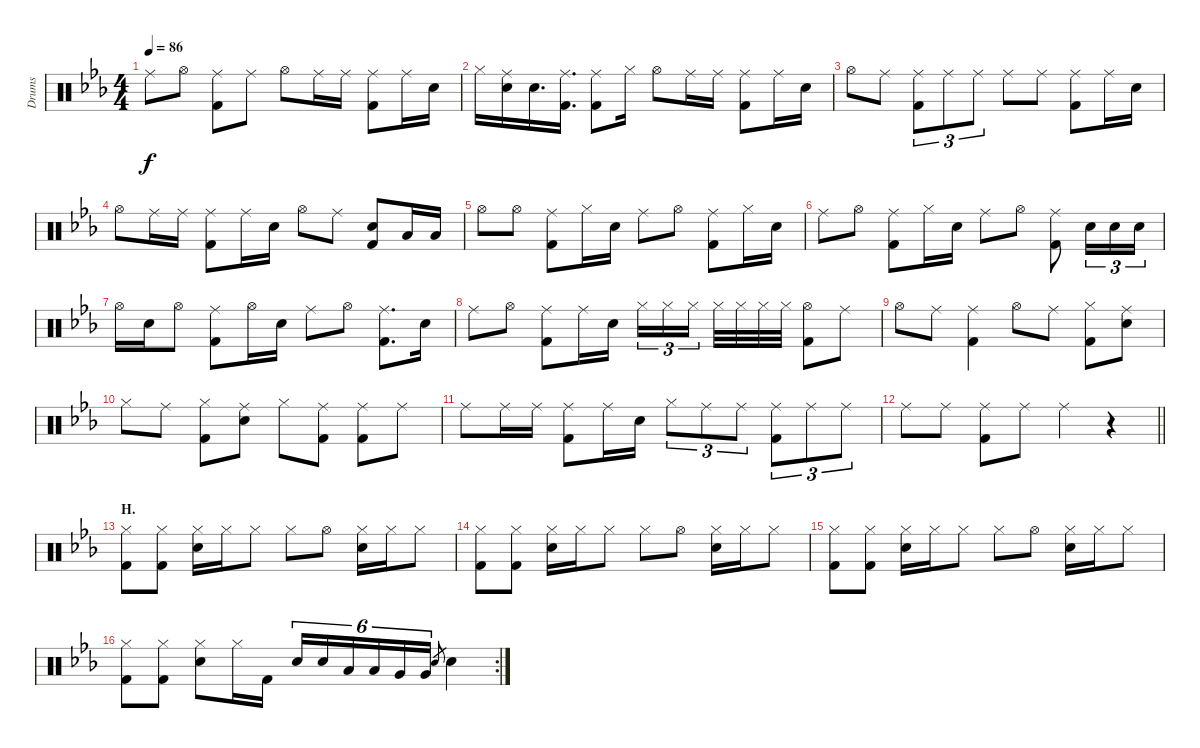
\track ("Drums" "Drums") {instrument percussion}
\staff {score}
\articulation defaults
\ts (4 4)
\tempo 86
\clef neutral
\ks eb "Ride (middle)".8{dy f} "Hi-Hat (open)".8
("Ride (middle)" "Kick (hit) 2").8 "Ride (middle)".8 "Hi-Hat (open)".8 "Ride (middle)".16 "Ride (middle)".16 ("Ride (middle)" "Kick (hit) 2").8 "Ride (middle)".16 "Snare (hit) 2".16 |
"Hi-Hat (closed)".16 ("Ride (middle)" "Snare (hit) 2").16 "Snare (hit) 2".16{d} ("Ride (middle)" "Kick (hit) 2").16{d} ("Ride (middle)" "Kick (hit) 2").8 "Hi-Hat (closed)".16 "Hi-Hat (open)".8 "Ride (middle)".16 "Ride (middle)".16 ("Ride (middle)" "Kick (hit) 2").8 "Ride (middle)".16 "Snare (hit) 2".16 |
"Hi-Hat (open)".8 "Ride (middle)".8 ("Ride (middle)" "Kick (hit) 2").8{tu (3 2)} "Ride (middle)".8{tu (3 2)} "Ride (middle)".8{tu (3 2)} "Ride (middle)".8 "Ride (middle)".8 ("Ride (middle)" "Kick (hit) 2").8 "Ride (middle)".16 "Snare (hit) 2".16 |
"Hi-Hat (open)".8 "Ride (middle)".16 "Ride (middle)".16 ("Ride (middle)" "Kick (hit) 2").8 "Ride (middle)".16 "Snare (hit) 2".16 "Hi-Hat (open)".8 "Ride (middle)".8 ("Snare (hit) 2" "Kick (hit) 2").8 "Low Tom (hit)".16 "Low Tom (hit)".16 |
"Hi-Hat (open)".8 "Hi-Hat (open)".8 ("Ride (middle)" "Kick (hit) 2").8 "Hi-Hat (closed)".16 "Snare (hit) 2".16 "Ride (middle)".8 "Hi-Hat (open)".8 ("Ride (middle)" "Kick (hit) 2").8 "Hi-Hat (closed)".16 "Snare (hit) 2".16 |
"Ride (middle)".8 "Hi-Hat (open)".8 ("Ride (middle)" "Kick (hit) 2").8 "Hi-Hat (closed)".16 "Snare (hit) 2".16 "Ride (middle)".8 "Hi-Hat (open)".8 ("Ride (middle)" "Kick (hit) 2").8 "Snare (hit) 2".16{tu (3 2)} "Snare (hit) 2".16{tu (3 2)} "Snare (hit) 2".16{tu (3 2)} |
"Hi-Hat (open)".16 "Snare (hit) 2".16 "Hi-Hat (open)".8 ("Ride (middle)" "Kick (hit) 2").8 "Hi-Hat (open)".16 "Snare (hit) 2".16 "Ride (middle)".8 "Hi-Hat (open)".8 ("Ride (middle)" "Kick (hit) 2").8{d} "Snare (hit) 2".16 |
"Ride (middle)".8 "Hi-Hat (open)".8 ("Ride (middle)" "Kick (hit) 2").8 "Ride (middle)".16 "Snare (hit) 2".16 "Hi-Hat (closed)".16{tu (3 2)} "Hi-Hat (closed)".16{tu (3 2)} "Hi-Hat (closed)".16{tu (3 2)} "Hi-Hat (closed)".32 "Hi-Hat (closed)".32 "Hi-Hat (closed)".32 "Hi-Hat (closed)".32 ("Hi-Hat (open)" "Kick (hit) 2").8 "Ride (middle)".8 |
"Hi-Hat (open)".8 "Ride (middle)".8 ("Ride (middle)" "Kick (hit) 2").4 "Hi-Hat (open)".8 "Ride (middle)".8 ("Hi-Hat (closed)" "Kick (hit) 2").8 ("Ride (middle)" "Snare (hit) 2").8 |
"Hi-Hat (closed)".8 "Ride (middle)".8 ("Hi-Hat (closed)" "Kick (hit) 2").8 ("Ride (middle)" "Snare (hit) 2").8 "Hi-Hat (closed)".8 ("Ride (middle)" "Kick (hit) 2").8 ("Ride (middle)" "Kick (hit) 2").8 "Ride (middle)".8 |
"Ride (middle)".8 "Ride (middle)".16 "Ride (middle)".16 ("Ride (middle)" "Kick (hit) 2").8 "Ride (middle)".16 "Snare (hit) 2".16 "Hi-Hat (closed)".8{tu (3 2)} "Ride (middle)".8{tu (3 2)} "Ride (middle)".8{tu (3 2)} ("Ride (middle)" "Kick (hit) 2").8{tu (3 2)} "Ride (middle)".8{tu (3 2)} "Ride (middle)".8{tu (3 2)} |
\barLineRight lightlight "Ride (middle)".8 "Ride (middle)".8
("Ride (middle)" "Kick (hit) 2").8 "Ride (middle)".8 "Ride (middle)".4 r.4 |
\section ("" "H.")
("Hi-Hat (closed)" "Kick (hit) 2").8 ("Hi-Hat (closed)" "Kick (hit) 2").8 ("Hi-Hat (closed)" "Snare (hit) 2").16 "Hi-Hat (closed)".16 "Hi-Hat (closed)".8 "Hi-Hat (closed)".8 "Hi-Hat (open)".8 ("Hi-Hat (closed)" "Snare (hit) 2").16 "Hi-Hat (closed)".16 "Hi-Hat (closed)".8 |
("Hi-Hat (closed)" "Kick (hit) 2").8 ("Hi-Hat (closed)" "Kick (hit) 2").8 ("Hi-Hat (closed)" "Snare (hit) 2").16 "Hi-Hat (closed)".16 "Hi-Hat (closed)".8 "Hi-Hat (closed)".8 "Hi-Hat (open)".8 ("Hi-Hat (closed)" "Snare (hit) 2").16 "Hi-Hat (closed)".16 "Hi-Hat (closed)".8 |
("Hi-Hat (closed)" "Kick (hit) 2").8 ("Hi-Hat (closed)" "Kick (hit) 2").8 ("Hi-Hat (closed)" "Snare (hit) 2").16 "Hi-Hat (closed)".16 "Hi-Hat (closed)".8 "Hi-Hat (closed)".8 "Hi-Hat (open)".8 ("Hi-Hat (closed)" "Snare (hit) 2").16 "Hi-Hat (closed)".16 "Hi-Hat (closed)".8 |
\rc 2
("Hi-Hat (closed)" "Kick (hit) 2").8 ("Hi-Hat (closed)" "Kick (hit) 2").8 ("Hi-Hat (closed)" "Snare (hit) 2").8 "Hi-Hat (closed)".16 "Kick (hit) 2".16 "Snare (hit) 2".16{tu (6 4)} "Snare (hit) 2".16{tu (6 4)} "Low Tom (hit)".16{tu (6 4)} "Low Tom (hit)".16{tu (6 4)} "Very Low Tom (hit)".16{tu (6 4)} "Very Low Tom (hit)".16{tu (6 4)} "Snare (hit) 2".8{gr} "Snare (hit) 2".4
